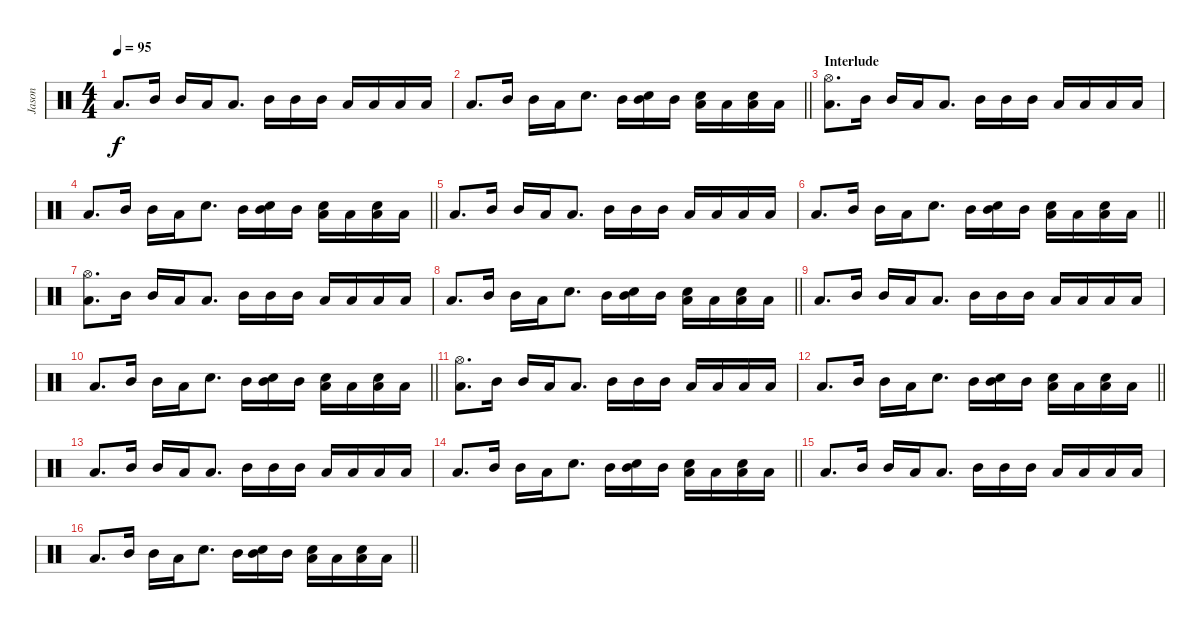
\track ("Jason" "Jason") {instrument percussion}
\staff {score}
\articulation defaults
\ts (4 4)
\tempo 95
\clef neutral
\ks c "Low Floor Tom (hit)".8{d dy f} "Mid Tom (hit)".16 "Mid Tom (hit)".16 "Low Tom (hit)".16 "Low Floor Tom (hit)".8{d} "Mid Tom (hit)".16 "Mid Tom (hit)".16 "Mid Tom (hit)".16 "Low Tom (hit)".16 "Low Tom (hit)".16 "Low Tom (hit)".16 "Low Tom (hit)".16
|
\barLineRight lightlight "Low Floor Tom (hit)".8{d} "Mid Tom (hit)".16 "Mid Tom (hit)".16 "Low Tom (hit)".16 "Electric Snare (hit)".8{d} "Mid Tom (hit)".16
("Mid Tom (hit)" "Electric Snare (hit)").16 "Mid Tom (hit)".16 ("Low Tom (hit)" "Electric Snare (hit)").16 "Low Tom (hit)".16 ("Low Tom (hit)" "Electric Snare (hit)").16 "Low Tom (hit)".16 |
\section ("" "Interlude")
("Hi-Hat (open)" "Low Floor Tom (hit)").8{d} "Mid Tom (hit)".16 "Mid Tom (hit)".16 "Low Tom (hit)".16 "Low Floor Tom (hit)".8{d} "Mid Tom (hit)".16 "Mid Tom (hit)".16 "Mid Tom (hit)".16 "Low Tom (hit)".16 "Low Tom (hit)".16 "Low Tom (hit)".16 "Low Tom (hit)".16 |
\barLineRight lightlight "Low Floor Tom (hit)".8{d} "Mid Tom (hit)".16 "Mid Tom (hit)".16 "Low Tom (hit)".16 "Electric Snare (hit)".8{d} "Mid Tom (hit)".16
("Mid Tom (hit)" "Electric Snare (hit)").16 "Mid Tom (hit)".16 ("Low Tom (hit)" "Electric Snare (hit)").16 "Low Tom (hit)".16 ("Low Tom (hit)" "Electric Snare (hit)").16 "Low Tom (hit)".16 |
"Low Floor Tom (hit)".8{d} "Mid Tom (hit)".16 "Mid Tom (hit)".16 "Low Tom (hit)".16 "Low Floor Tom (hit)".8{d} "Mid Tom (hit)".16 "Mid Tom (hit)".16 "Mid Tom (hit)".16 "Low Tom (hit)".16 "Low Tom (hit)".16 "Low Tom (hit)".16 "Low Tom (hit)".16 |
\barLineRight lightlight "Low Floor Tom (hit)".8{d} "Mid Tom (hit)".16 "Mid Tom (hit)".16 "Low Tom (hit)".16 "Electric Snare (hit)".8{d} "Mid Tom (hit)".16
("Mid Tom (hit)" "Electric Snare (hit)").16 "Mid Tom (hit)".16 ("Low Tom (hit)" "Electric Snare (hit)").16 "Low Tom (hit)".16 ("Low Tom (hit)" "Electric Snare (hit)").16 "Low Tom (hit)".16 |
("Hi-Hat (open)" "Low Floor Tom (hit)").8{d} "Mid Tom (hit)".16 "Mid Tom (hit)".16 "Low Tom (hit)".16 "Low Floor Tom (hit)".8{d} "Mid Tom (hit)".16 "Mid Tom (hit)".16 "Mid Tom (hit)".16 "Low Tom (hit)".16 "Low Tom (hit)".16 "Low Tom (hit)".16 "Low Tom (hit)".16 |
\barLineRight lightlight "Low Floor Tom (hit)".8{d} "Mid Tom (hit)".16 "Mid Tom (hit)".16 "Low Tom (hit)".16 "Electric Snare (hit)".8{d} "Mid Tom (hit)".16
("Mid Tom (hit)" "Electric Snare (hit)").16 "Mid Tom (hit)".16 ("Low Tom (hit)" "Electric Snare (hit)").16 "Low Tom (hit)".16 ("Low Tom (hit)" "Electric Snare (hit)").16 "Low Tom (hit)".16 |
"Low Floor Tom (hit)".8{d} "Mid Tom (hit)".16 "Mid Tom (hit)".16 "Low Tom (hit)".16 "Low Floor Tom (hit)".8{d} "Mid Tom (hit)".16 "Mid Tom (hit)".16 "Mid Tom (hit)".16 "Low Tom (hit)".16 "Low Tom (hit)".16 "Low Tom (hit)".16 "Low Tom (hit)".16 |
\barLineRight lightlight "Low Floor Tom (hit)".8{d} "Mid Tom (hit)".16 "Mid Tom (hit)".16 "Low Tom (hit)".16 "Electric Snare (hit)".8{d} "Mid Tom (hit)".16
("Mid Tom (hit)" "Electric Snare (hit)").16 "Mid Tom (hit)".16 ("Low Tom (hit)" "Electric Snare (hit)").16 "Low Tom (hit)".16 ("Low Tom (hit)" "Electric Snare (hit)").16 "Low Tom (hit)".16 |
("Hi-Hat (open)" "Low Floor Tom (hit)").8{d} "Mid Tom (hit)".16 "Mid Tom (hit)".16 "Low Tom (hit)".16 "Low Floor Tom (hit)".8{d} "Mid Tom (hit)".16 "Mid Tom (hit)".16 "Mid Tom (hit)".16 "Low Tom (hit)".16 "Low Tom (hit)".16 "Low Tom (hit)".16 "Low Tom (hit)".16 |
\barLineRight lightlight "Low Floor Tom (hit)".8{d} "Mid Tom (hit)".16 "Mid Tom (hit)".16 "Low Tom (hit)".16 "Electric Snare (hit)".8{d} "Mid Tom (hit)".16
("Mid Tom (hit)" "Electric Snare (hit)").16 "Mid Tom (hit)".16 ("Low Tom (hit)" "Electric Snare (hit)").16 "Low Tom (hit)".16 ("Low Tom (hit)" "Electric Snare (hit)").16 "Low Tom (hit)".16 |
"Low Floor Tom (hit)".8{d} "Mid Tom (hit)".16 "Mid Tom (hit)".16 "Low Tom (hit)".16 "Low Floor Tom (hit)".8{d} "Mid Tom (hit)".16 "Mid Tom (hit)".16 "Mid Tom (hit)".16 "Low Tom (hit)".16 "Low Tom (hit)".16 "Low Tom (hit)".16 "Low Tom (hit)".16 |
\barLineRight lightlight "Low Floor Tom (hit)".8{d} "Mid Tom (hit)".16 "Mid Tom (hit)".16 "Low Tom (hit)".16 "Electric Snare (hit)".8{d} "Mid Tom (hit)".16
("Mid Tom (hit)" "Electric Snare (hit)").16 "Mid Tom (hit)".16 ("Low Tom (hit)" "Electric Snare (hit)").16 "Low Tom (hit)".16 ("Low Tom (hit)" "Electric Snare (hit)").16 "Low Tom (hit)".16 |
"Low Floor Tom (hit)".8{d} "Mid Tom (hit)".16 "Mid Tom (hit)".16 "Low Tom (hit)".16 "Low Floor Tom (hit)".8{d} "Mid Tom (hit)".16 "Mid Tom (hit)".16 "Mid Tom (hit)".16 "Low Tom (hit)".16 "Low Tom (hit)".16 "Low Tom (hit)".16 "Low Tom (hit)".16 |
\barLineRight lightlight "Low Floor Tom (hit)".8{d} "Mid Tom (hit)".16 "Mid Tom (hit)".16 "Low Tom (hit)".16 "Electric Snare (hit)".8{d} "Mid Tom (hit)".16
("Mid Tom (hit)" "Electric Snare (hit)").16 "Mid Tom (hit)".16 ("Low Tom (hit)" "Electric Snare (hit)").16 "Low Tom (hit)".16 ("Low Tom (hit)" "Electric Snare (hit)").16 "Low Tom (hit)".16
